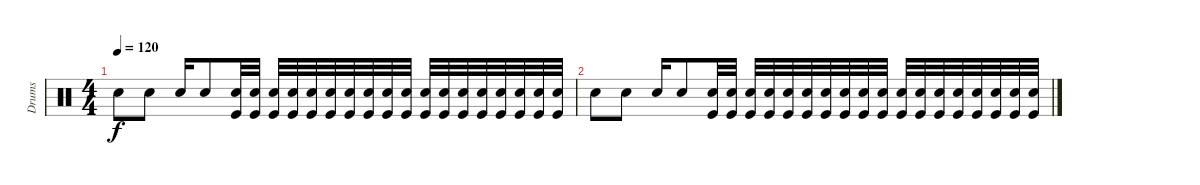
\track ("Drums" "Drums") {instrument percussion}
\staff {score}
\articulation defaults
\ts (4 4)
\tempo 120
\clef neutral
\ks c "Electric Snare (hit)".8{dy f} "Electric Snare (hit)".8 "Electric Snare (hit)".16 "Electric Snare (hit)".8
("Kick (hit)" "Electric Snare (hit)").32 ("Kick (hit)" "Electric Snare (hit)").32 ("Kick (hit)" "Electric Snare (hit)").32 ("Kick (hit)" "Electric Snare (hit)").32 ("Kick (hit)" "Electric Snare (hit)").32 ("Kick (hit)" "Electric Snare (hit)").32 ("Kick (hit)" "Electric Snare (hit)").32 ("Kick (hit)" "Electric Snare (hit)").32 ("Kick (hit)" "Electric Snare (hit)").32 ("Kick (hit)" "Electric Snare (hit)").32 ("Kick (hit)" "Electric Snare (hit)").32 ("Kick (hit)" "Electric Snare (hit)").32 ("Kick (hit)" "Electric Snare (hit)").32 ("Kick (hit)" "Electric Snare (hit)").32 ("Kick (hit)" "Electric Snare (hit)").32 ("Kick (hit)" "Electric Snare (hit)").32 ("Kick (hit)" "Electric Snare (hit)").32 ("Kick (hit)" "Electric Snare (hit)").32 |
"Electric Snare (hit)".8 "Electric Snare (hit)".8 "Electric Snare (hit)".16 "Electric Snare (hit)".8 ("Kick (hit)" "Electric Snare (hit)").32 ("Kick (hit)" "Electric Snare (hit)").32 ("Kick (hit)" "Electric Snare (hit)").32 ("Kick (hit)" "Electric Snare (hit)").32 ("Kick (hit)" "Electric Snare (hit)").32 ("Kick (hit)" "Electric Snare (hit)").32 ("Kick (hit)" "Electric Snare (hit)").32 ("Kick (hit)" "Electric Snare (hit)").32 ("Kick (hit)" "Electric Snare (hit)").32 ("Kick (hit)" "Electric Snare (hit)").32 ("Kick (hit)" "Electric Snare (hit)").32 ("Kick (hit)" "Electric Snare (hit)").32 ("Kick (hit)" "Electric Snare (hit)").32 ("Kick (hit)" "Electric Snare (hit)").32 ("Kick (hit)" "Electric Snare (hit)").32 ("Kick (hit)" "Electric Snare (hit)").32 ("Kick (hit)" "Electric Snare (hit)").32 ("Kick (hit)" "Electric Snare (hit)").32
